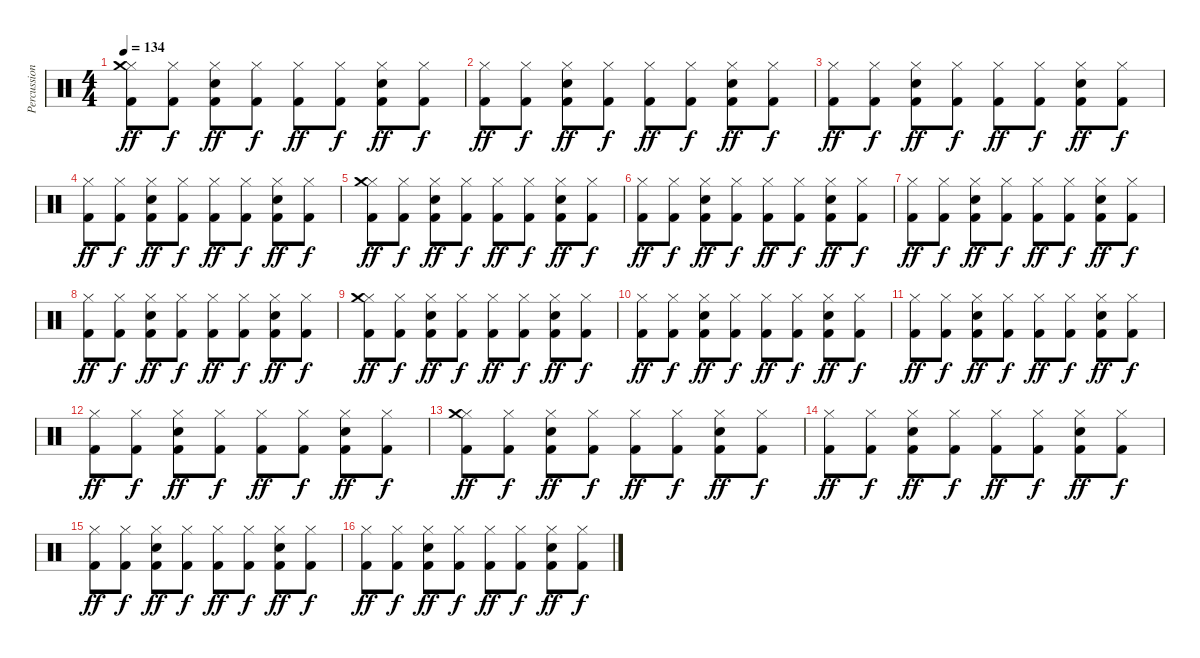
\track ("Percussion" "Percussion") {instrument percussion}
\staff {score}
\articulation defaults
\ts (4 4)
\tempo 134
\clef neutral
\ks c
("Kick (hit) 2" "Hi-Hat (closed)" "Crash medium (hit)").8{dy ff} ("Kick (hit) 2" "Hi-Hat (closed)").8{dy f} ("Kick (hit) 2" "Hi-Hat (closed)" "Electric Snare (hit)").8{dy ff} ("Kick (hit) 2" "Hi-Hat (closed)").8{dy f} ("Kick (hit) 2" "Hi-Hat (closed)").8{dy ff} ("Kick (hit) 2" "Hi-Hat (closed)").8{dy f} ("Kick (hit) 2" "Hi-Hat (closed)" "Electric Snare (hit)").8{dy ff} ("Kick (hit) 2" "Hi-Hat (closed)").8{dy f} |
("Kick (hit) 2" "Hi-Hat (closed)").8{dy ff} ("Kick (hit) 2" "Hi-Hat (closed)").8{dy f} ("Kick (hit) 2" "Hi-Hat (closed)" "Electric Snare (hit)").8{dy ff} ("Kick (hit) 2" "Hi-Hat (closed)").8{dy f} ("Kick (hit) 2" "Hi-Hat (closed)").8{dy ff} ("Kick (hit) 2" "Hi-Hat (closed)").8{dy f} ("Kick (hit) 2" "Hi-Hat (closed)" "Electric Snare (hit)").8{dy ff} ("Kick (hit) 2" "Hi-Hat (closed)").8{dy f} |
("Kick (hit) 2" "Hi-Hat (closed)").8{dy ff} ("Kick (hit) 2" "Hi-Hat (closed)").8{dy f} ("Kick (hit) 2" "Hi-Hat (closed)" "Electric Snare (hit)").8{dy ff} ("Kick (hit) 2" "Hi-Hat (closed)").8{dy f} ("Kick (hit) 2" "Hi-Hat (closed)").8{dy ff} ("Kick (hit) 2" "Hi-Hat (closed)").8{dy f} ("Kick (hit) 2" "Hi-Hat (closed)" "Electric Snare (hit)").8{dy ff} ("Kick (hit) 2" "Hi-Hat (closed)").8{dy f} |
("Kick (hit) 2" "Hi-Hat (closed)").8{dy ff} ("Kick (hit) 2" "Hi-Hat (closed)").8{dy f} ("Kick (hit) 2" "Hi-Hat (closed)" "Electric Snare (hit)").8{dy ff} ("Kick (hit) 2" "Hi-Hat (closed)").8{dy f} ("Kick (hit) 2" "Hi-Hat (closed)").8{dy ff} ("Kick (hit) 2" "Hi-Hat (closed)").8{dy f} ("Kick (hit) 2" "Hi-Hat (closed)" "Electric Snare (hit)").8{dy ff} ("Kick (hit) 2" "Hi-Hat (closed)").8{dy f} |
("Kick (hit) 2" "Hi-Hat (closed)" "Crash medium (hit)").8{dy ff} ("Kick (hit) 2" "Hi-Hat (closed)").8{dy f} ("Kick (hit) 2" "Hi-Hat (closed)" "Electric Snare (hit)").8{dy ff} ("Kick (hit) 2" "Hi-Hat (closed)").8{dy f} ("Kick (hit) 2" "Hi-Hat (closed)").8{dy ff} ("Kick (hit) 2" "Hi-Hat (closed)").8{dy f} ("Kick (hit) 2" "Hi-Hat (closed)" "Electric Snare (hit)").8{dy ff} ("Kick (hit) 2" "Hi-Hat (closed)").8{dy f} |
("Kick (hit) 2" "Hi-Hat (closed)").8{dy ff} ("Kick (hit) 2" "Hi-Hat (closed)").8{dy f} ("Kick (hit) 2" "Hi-Hat (closed)" "Electric Snare (hit)").8{dy ff} ("Kick (hit) 2" "Hi-Hat (closed)").8{dy f} ("Kick (hit) 2" "Hi-Hat (closed)").8{dy ff} ("Kick (hit) 2" "Hi-Hat (closed)").8{dy f} ("Kick (hit) 2" "Hi-Hat (closed)" "Electric Snare (hit)").8{dy ff} ("Kick (hit) 2" "Hi-Hat (closed)").8{dy f} |
("Kick (hit) 2" "Hi-Hat (closed)").8{dy ff} ("Kick (hit) 2" "Hi-Hat (closed)").8{dy f} ("Kick (hit) 2" "Hi-Hat (closed)" "Electric Snare (hit)").8{dy ff} ("Kick (hit) 2" "Hi-Hat (closed)").8{dy f} ("Kick (hit) 2" "Hi-Hat (closed)").8{dy ff} ("Kick (hit) 2" "Hi-Hat (closed)").8{dy f} ("Kick (hit) 2" "Hi-Hat (closed)" "Electric Snare (hit)").8{dy ff} ("Kick (hit) 2" "Hi-Hat (closed)").8{dy f} |
("Kick (hit) 2" "Hi-Hat (closed)").8{dy ff} ("Kick (hit) 2" "Hi-Hat (closed)").8{dy f} ("Kick (hit) 2" "Hi-Hat (closed)" "Electric Snare (hit)").8{dy ff} ("Kick (hit) 2" "Hi-Hat (closed)").8{dy f} ("Kick (hit) 2" "Hi-Hat (closed)").8{dy ff} ("Kick (hit) 2" "Hi-Hat (closed)").8{dy f} ("Kick (hit) 2" "Hi-Hat (closed)" "Electric Snare (hit)").8{dy ff} ("Kick (hit) 2" "Hi-Hat (closed)").8{dy f} |
("Kick (hit) 2" "Hi-Hat (closed)" "Crash medium (hit)").8{dy ff} ("Kick (hit) 2" "Hi-Hat (closed)").8{dy f} ("Kick (hit) 2" "Hi-Hat (closed)" "Electric Snare (hit)").8{dy ff} ("Kick (hit) 2" "Hi-Hat (closed)").8{dy f} ("Kick (hit) 2" "Hi-Hat (closed)").8{dy ff} ("Kick (hit) 2" "Hi-Hat (closed)").8{dy f} ("Kick (hit) 2" "Hi-Hat (closed)" "Electric Snare (hit)").8{dy ff} ("Kick (hit) 2" "Hi-Hat (closed)").8{dy f} |
("Kick (hit) 2" "Hi-Hat (closed)").8{dy ff} ("Kick (hit) 2" "Hi-Hat (closed)").8{dy f} ("Kick (hit) 2" "Hi-Hat (closed)" "Electric Snare (hit)").8{dy ff} ("Kick (hit) 2" "Hi-Hat (closed)").8{dy f} ("Kick (hit) 2" "Hi-Hat (closed)").8{dy ff} ("Kick (hit) 2" "Hi-Hat (closed)").8{dy f} ("Kick (hit) 2" "Hi-Hat (closed)" "Electric Snare (hit)").8{dy ff} ("Kick (hit) 2" "Hi-Hat (closed)").8{dy f} |
("Kick (hit) 2" "Hi-Hat (closed)").8{dy ff} ("Kick (hit) 2" "Hi-Hat (closed)").8{dy f} ("Kick (hit) 2" "Hi-Hat (closed)" "Electric Snare (hit)").8{dy ff} ("Kick (hit) 2" "Hi-Hat (closed)").8{dy f} ("Kick (hit) 2" "Hi-Hat (closed)").8{dy ff} ("Kick (hit) 2" "Hi-Hat (closed)").8{dy f} ("Kick (hit) 2" "Hi-Hat (closed)" "Electric Snare (hit)").8{dy ff} ("Kick (hit) 2" "Hi-Hat (closed)").8{dy f} |
("Kick (hit) 2" "Hi-Hat (closed)").8{dy ff} ("Kick (hit) 2" "Hi-Hat (closed)").8{dy f} ("Kick (hit) 2" "Hi-Hat (closed)" "Electric Snare (hit)").8{dy ff} ("Kick (hit) 2" "Hi-Hat (closed)").8{dy f} ("Kick (hit) 2" "Hi-Hat (closed)").8{dy ff} ("Kick (hit) 2" "Hi-Hat (closed)").8{dy f} ("Kick (hit) 2" "Hi-Hat (closed)" "Electric Snare (hit)").8{dy ff} ("Kick (hit) 2" "Hi-Hat (closed)").8{dy f} |
("Kick (hit) 2" "Hi-Hat (closed)" "Crash medium (hit)").8{dy ff} ("Kick (hit) 2" "Hi-Hat (closed)").8{dy f} ("Kick (hit) 2" "Hi-Hat (closed)" "Electric Snare (hit)").8{dy ff} ("Kick (hit) 2" "Hi-Hat (closed)").8{dy f} ("Kick (hit) 2" "Hi-Hat (closed)").8{dy ff} ("Kick (hit) 2" "Hi-Hat (closed)").8{dy f} ("Kick (hit) 2" "Hi-Hat (closed)" "Electric Snare (hit)").8{dy ff} ("Kick (hit) 2" "Hi-Hat (closed)").8{dy f} |
("Kick (hit) 2" "Hi-Hat (closed)").8{dy ff} ("Kick (hit) 2" "Hi-Hat (closed)").8{dy f} ("Kick (hit) 2" "Hi-Hat (closed)" "Electric Snare (hit)").8{dy ff} ("Kick (hit) 2" "Hi-Hat (closed)").8{dy f} ("Kick (hit) 2" "Hi-Hat (closed)").8{dy ff} ("Kick (hit) 2" "Hi-Hat (closed)").8{dy f} ("Kick (hit) 2" "Hi-Hat (closed)" "Electric Snare (hit)").8{dy ff} ("Kick (hit) 2" "Hi-Hat (closed)").8{dy f} |
("Kick (hit) 2" "Hi-Hat (closed)").8{dy ff} ("Kick (hit) 2" "Hi-Hat (closed)").8{dy f} ("Kick (hit) 2" "Hi-Hat (closed)" "Electric Snare (hit)").8{dy ff} ("Kick (hit) 2" "Hi-Hat (closed)").8{dy f} ("Kick (hit) 2" "Hi-Hat (closed)").8{dy ff} ("Kick (hit) 2" "Hi-Hat (closed)").8{dy f} ("Kick (hit) 2" "Hi-Hat (closed)" "Electric Snare (hit)").8{dy ff} ("Kick (hit) 2" "Hi-Hat (closed)").8{dy f} |
("Kick (hit) 2" "Hi-Hat (closed)").8{dy ff} ("Kick (hit) 2" "Hi-Hat (closed)").8{dy f} ("Kick (hit) 2" "Hi-Hat (closed)" "Electric Snare (hit)").8{dy ff} ("Kick (hit) 2" "Hi-Hat (closed)").8{dy f} ("Kick (hit) 2" "Hi-Hat (closed)").8{dy ff} ("Kick (hit) 2" "Hi-Hat (closed)").8{dy f} ("Kick (hit) 2" "Hi-Hat (closed)" "Electric Snare (hit)").8{dy ff} ("Kick (hit) 2" "Hi-Hat (closed)").8{dy f}
